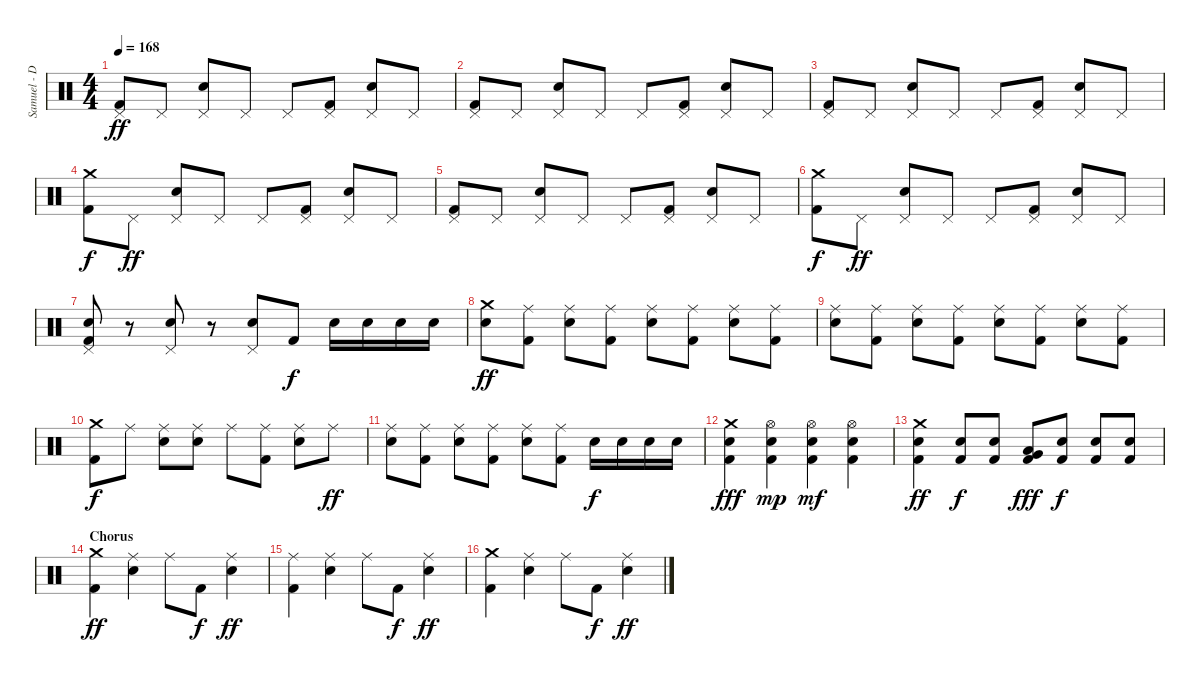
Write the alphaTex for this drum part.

\track ("Samuel - Drums" "Samuel - D") {instrument percussion}
\staff {score}
\articulation defaults
\ts (4 4)
\tempo 168
\clef neutral
\ks c
("Pedal Hi-Hat (hit)" "Kick (hit) 2").8{dy ff} "Pedal Hi-Hat (hit)".8 ("Pedal Hi-Hat (hit)" "Electric Snare (hit)").8 "Pedal Hi-Hat (hit)".8 "Pedal Hi-Hat (hit)".8 ("Pedal Hi-Hat (hit)" "Kick (hit) 2").8 ("Pedal Hi-Hat (hit)" "Electric Snare (hit)").8 "Pedal Hi-Hat (hit)".8 |
("Pedal Hi-Hat (hit)" "Kick (hit) 2").8 "Pedal Hi-Hat (hit)".8 ("Pedal Hi-Hat (hit)" "Electric Snare (hit)").8 "Pedal Hi-Hat (hit)".8 "Pedal Hi-Hat (hit)".8 ("Pedal Hi-Hat (hit)" "Kick (hit) 2").8 ("Pedal Hi-Hat (hit)" "Electric Snare (hit)").8 "Pedal Hi-Hat (hit)".8 |
("Pedal Hi-Hat (hit)" "Kick (hit) 2").8 "Pedal Hi-Hat (hit)".8 ("Pedal Hi-Hat (hit)" "Electric Snare (hit)").8 "Pedal Hi-Hat (hit)".8 "Pedal Hi-Hat (hit)".8 ("Pedal Hi-Hat (hit)" "Kick (hit) 2").8 ("Pedal Hi-Hat (hit)" "Electric Snare (hit)").8 "Pedal Hi-Hat (hit)".8 |
("Crash medium (hit)" "Kick (hit) 2").8{dy f} "Pedal Hi-Hat (hit)".8{dy ff} ("Pedal Hi-Hat (hit)" "Electric Snare (hit)").8 "Pedal Hi-Hat (hit)".8 "Pedal Hi-Hat (hit)".8 ("Pedal Hi-Hat (hit)" "Kick (hit) 2").8 ("Pedal Hi-Hat (hit)" "Electric Snare (hit)").8 "Pedal Hi-Hat (hit)".8 |
("Pedal Hi-Hat (hit)" "Kick (hit) 2").8 "Pedal Hi-Hat (hit)".8 ("Pedal Hi-Hat (hit)" "Electric Snare (hit)").8 "Pedal Hi-Hat (hit)".8 "Pedal Hi-Hat (hit)".8 ("Pedal Hi-Hat (hit)" "Kick (hit) 2").8 ("Pedal Hi-Hat (hit)" "Electric Snare (hit)").8 "Pedal Hi-Hat (hit)".8 |
("Crash medium (hit)" "Kick (hit) 2").8{dy f} "Pedal Hi-Hat (hit)".8{dy ff} ("Pedal Hi-Hat (hit)" "Electric Snare (hit)").8 "Pedal Hi-Hat (hit)".8 "Pedal Hi-Hat (hit)".8 ("Pedal Hi-Hat (hit)" "Kick (hit) 2").8 ("Pedal Hi-Hat (hit)" "Electric Snare (hit)").8 "Pedal Hi-Hat (hit)".8 |
("Pedal Hi-Hat (hit)" "Electric Snare (hit)" "Kick (hit) 2").8 r.8 ("Pedal Hi-Hat (hit)" "Electric Snare (hit)").8 r.8 ("Pedal Hi-Hat (hit)" "Electric Snare (hit)").8 "Kick (hit) 2".8{dy f} "Electric Snare (hit)".16 "Electric Snare (hit)".16 "Electric Snare (hit)".16 "Electric Snare (hit)".16 |
("Crash medium (hit)" "Electric Snare (hit)").8{dy ff} ("Ride (middle)" "Kick (hit) 2").8 ("Ride (middle)" "Electric Snare (hit)").8 ("Ride (middle)" "Kick (hit) 2").8 ("Ride (middle)" "Electric Snare (hit)").8 ("Ride (middle)" "Kick (hit) 2").8 ("Ride (middle)" "Electric Snare (hit)").8 ("Ride (middle)" "Kick (hit) 2").8 |
("Ride (middle)" "Electric Snare (hit)").8 ("Ride (middle)" "Kick (hit) 2").8 ("Ride (middle)" "Electric Snare (hit)").8 ("Ride (middle)" "Kick (hit) 2").8 ("Ride (middle)" "Electric Snare (hit)").8 ("Ride (middle)" "Kick (hit) 2").8 ("Ride (middle)" "Electric Snare (hit)").8 ("Ride (middle)" "Kick (hit) 2").8 |
("Crash medium (hit)" "Kick (hit) 2").8{dy f} "Ride (middle)".8 ("Ride (middle)" "Electric Snare (hit)").8 ("Ride (middle)" "Electric Snare (hit)").8 "Ride (middle)".8 ("Ride (middle)" "Kick (hit) 2").8 ("Ride (middle)" "Electric Snare (hit)").8 "Ride (middle)".8{dy ff} |
("Ride (middle)" "Electric Snare (hit)").8 ("Ride (middle)" "Kick (hit) 2").8 ("Ride (middle)" "Electric Snare (hit)").8 ("Ride (middle)" "Kick (hit) 2").8 ("Ride (middle)" "Electric Snare (hit)").8 ("Ride (middle)" "Kick (hit) 2").8 "Electric Snare (hit)".16{dy f} "Electric Snare (hit)".16 "Electric Snare (hit)".16 "Electric Snare (hit)".16 |
("Crash medium (hit)" "Electric Snare (hit)" "Kick (hit) 2").4{dy fff} ("Hi-Hat (open)" "Electric Snare (hit)" "Kick (hit) 2").4{dy mp} ("Hi-Hat (open)" "Electric Snare (hit)" "Kick (hit) 2").4{dy mf} ("Hi-Hat (open)" "Electric Snare (hit)" "Kick (hit) 2").4 |
("Crash medium (hit)" "Electric Snare (hit)" "Kick (hit) 2").4{dy ff} ("Electric Snare (hit)" "Kick (hit) 2").8{dy f} ("Electric Snare (hit)" "Kick (hit) 2").8 ("Low Tom (hit)" "Very Low Tom (hit)" "Kick (hit) 2").8{dy fff} ("Electric Snare (hit)" "Kick (hit) 2").8{dy f} ("Electric Snare (hit)" "Kick (hit) 2").8 ("Electric Snare (hit)" "Kick (hit) 2").8 |
\section ("" "Chorus")
("Crash medium (hit)" "Kick (hit) 2").4{dy ff} ("Ride (middle)" "Electric Snare (hit)").4 "Ride (middle)".8 "Kick (hit) 2".8{dy f} ("Ride (middle)" "Electric Snare (hit)").4{dy ff} |
("Ride (middle)" "Kick (hit) 2").4 ("Ride (middle)" "Electric Snare (hit)").4 "Ride (middle)".8 "Kick (hit) 2".8{dy f} ("Ride (middle)" "Electric Snare (hit)").4{dy ff} |
("Crash medium (hit)" "Kick (hit) 2").4 ("Ride (middle)" "Electric Snare (hit)").4 "Ride (middle)".8 "Kick (hit) 2".8{dy f} ("Ride (middle)" "Electric Snare (hit)").4{dy ff}
